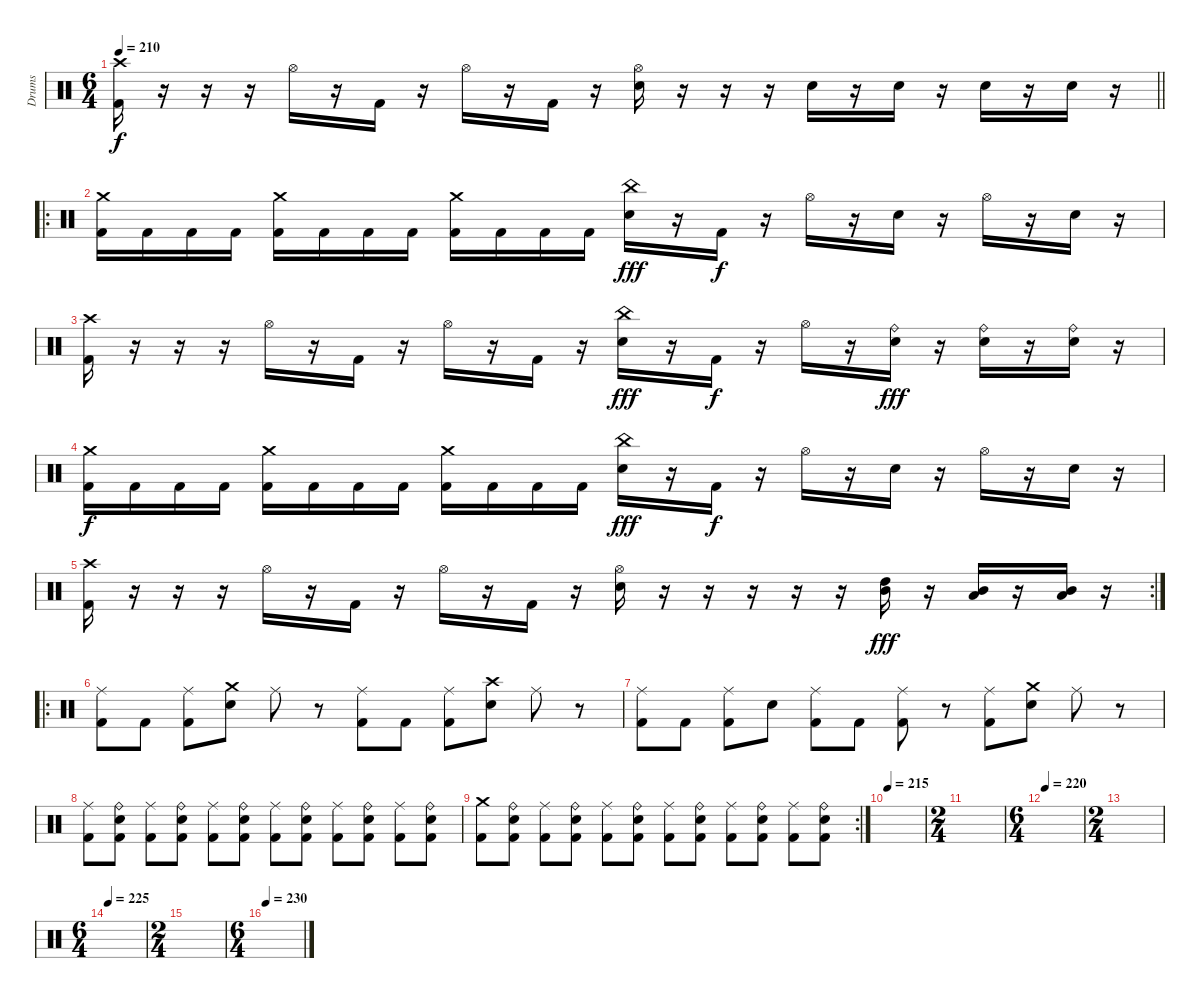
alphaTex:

\track ("Drums" "Drums") {instrument percussion}
\staff {score}
\articulation defaults
\ts (6 4)
\tempo 210
\clef neutral
\barLineRight lightlight
\ks c
("Crash high (hit)" "Kick (hit) 2").16{dy f} r.16 r.16 r.16 "Hi-Hat (open)".16 r.16 "Kick (hit) 2".16 r.16 "Hi-Hat (open)".16 r.16 "Kick (hit) 2".16 r.16 ("Hi-Hat (open)" "Electric Snare (hit)").16 r.16 r.16 r.16 "Electric Snare (hit)".16 r.16 "Electric Snare (hit)".16 r.16 "Electric Snare (hit)".16 r.16 "Electric Snare (hit)".16 r.16 |
\ro
\section ("" "")
("Crash medium (hit)" "Kick (hit) 2").16 "Kick (hit) 2".16 "Kick (hit) 2".16 "Kick (hit) 2".16 ("Crash medium (hit)" "Kick (hit) 2").16 "Kick (hit) 2".16 "Kick (hit) 2".16 "Kick (hit) 2".16 ("Crash medium (hit)" "Kick (hit) 2").16 "Kick (hit) 2".16 "Kick (hit) 2".16 "Kick (hit) 2".16 ("China (hit)" "Electric Snare (hit)").16{dy fff} r.16 "Kick (hit) 2".16{dy f} r.16 "Hi-Hat (open)".16 r.16 "Electric Snare (hit)".16 r.16 "Hi-Hat (open)".16 r.16 "Electric Snare (hit)".16 r.16 |
("Crash high (hit)" "Kick (hit) 2").16 r.16 r.16 r.16 "Hi-Hat (open)".16 r.16 "Kick (hit) 2".16 r.16 "Hi-Hat (open)".16 r.16 "Kick (hit) 2".16 r.16 ("China (hit)" "Electric Snare (hit)").16{dy fff} r.16 "Kick (hit) 2".16{dy f} r.16 "Hi-Hat (open)".16 r.16 ("Ride (bell)" "Electric Snare (hit)").16{dy fff} r.16 ("Ride (bell)" "Electric Snare (hit)").16 r.16 ("Ride (bell)" "Electric Snare (hit)").16 r.16 |
("Crash medium (hit)" "Kick (hit) 2").16{dy f} "Kick (hit) 2".16 "Kick (hit) 2".16 "Kick (hit) 2".16 ("Crash medium (hit)" "Kick (hit) 2").16 "Kick (hit) 2".16 "Kick (hit) 2".16 "Kick (hit) 2".16 ("Crash medium (hit)" "Kick (hit) 2").16 "Kick (hit) 2".16 "Kick (hit) 2".16 "Kick (hit) 2".16 ("China (hit)" "Electric Snare (hit)").16{dy fff} r.16 "Kick (hit) 2".16{dy f} r.16 "Hi-Hat (open)".16 r.16 "Electric Snare (hit)".16 r.16 "Hi-Hat (open)".16 r.16 "Electric Snare (hit)".16 r.16 |
\rc 2
("Crash high (hit)" "Kick (hit) 2").16 r.16 r.16 r.16 "Hi-Hat (open)".16 r.16 "Kick (hit) 2".16 r.16 "Hi-Hat (open)".16 r.16 "Kick (hit) 2".16 r.16 ("Hi-Hat (open)" "Electric Snare (hit)").16 r.16 r.16 r.16 r.16 r.16 ("Mid Tom (hit)" "High Tom (hit)").16{dy fff} r.16 ("Low Tom (hit)" "Mid Tom (hit)").16 r.16 ("Low Tom (hit)" "Mid Tom (hit)").16 r.16 |
\ro
("Ride (middle)" "Kick (hit) 2").8 "Kick (hit) 2".8 ("Ride (middle)" "Kick (hit) 2").8 ("Crash medium (hit)" "Electric Snare (hit)").8 "Ride (middle)".8 r.8 ("Ride (middle)" "Kick (hit) 2").8 "Kick (hit) 2".8 ("Ride (middle)" "Kick (hit) 2").8 ("Crash high (hit)" "Electric Snare (hit)").8 "Ride (middle)".8 r.8 |
("Ride (middle)" "Kick (hit) 2").8 "Kick (hit) 2".8 ("Ride (middle)" "Kick (hit) 2").8 "Electric Snare (hit)".8 ("Ride (middle)" "Kick (hit) 2").8 "Kick (hit) 2".8 ("Ride (middle)" "Kick (hit) 2").8 r.8 ("Ride (middle)" "Kick (hit) 2").8 ("Crash medium (hit)" "Electric Snare (hit)").8 "Ride (middle)".8 r.8 |
("Ride (middle)" "Kick (hit) 2").8 ("Ride (bell)" "Electric Snare (hit)" "Kick (hit) 2").8 ("Ride (middle)" "Kick (hit) 2").8 ("Ride (bell)" "Electric Snare (hit)" "Kick (hit) 2").8 ("Ride (middle)" "Kick (hit) 2").8 ("Ride (bell)" "Electric Snare (hit)" "Kick (hit) 2").8 ("Ride (middle)" "Kick (hit) 2").8 ("Ride (bell)" "Electric Snare (hit)" "Kick (hit) 2").8 ("Ride (middle)" "Kick (hit) 2").8 ("Ride (bell)" "Electric Snare (hit)" "Kick (hit) 2").8 ("Ride (middle)" "Kick (hit) 2").8 ("Ride (bell)" "Electric Snare (hit)" "Kick (hit) 2").8 |
\rc 2
("Crash medium (hit)" "Kick (hit) 2").8 ("Ride (bell)" "Electric Snare (hit)" "Kick (hit) 2").8 ("Ride (middle)" "Kick (hit) 2").8 ("Ride (bell)" "Electric Snare (hit)" "Kick (hit) 2").8 ("Ride (middle)" "Kick (hit) 2").8 ("Ride (bell)" "Electric Snare (hit)" "Kick (hit) 2").8 ("Ride (middle)" "Kick (hit) 2").8 ("Ride (bell)" "Electric Snare (hit)" "Kick (hit) 2").8 ("Ride (middle)" "Kick (hit) 2").8 ("Ride (bell)" "Electric Snare (hit)" "Kick (hit) 2").8 ("Ride (middle)" "Kick (hit) 2").8 ("Ride (bell)" "Electric Snare (hit)" "Kick (hit) 2").8 |
\tempo 215
|
\ts (2 4)
|
\ts (6 4)
\tempo 220
|
\ts (2 4)
|
\ts (6 4)
\tempo 225
|
\ts (2 4)
|
\ts (6 4)
\tempo 230
